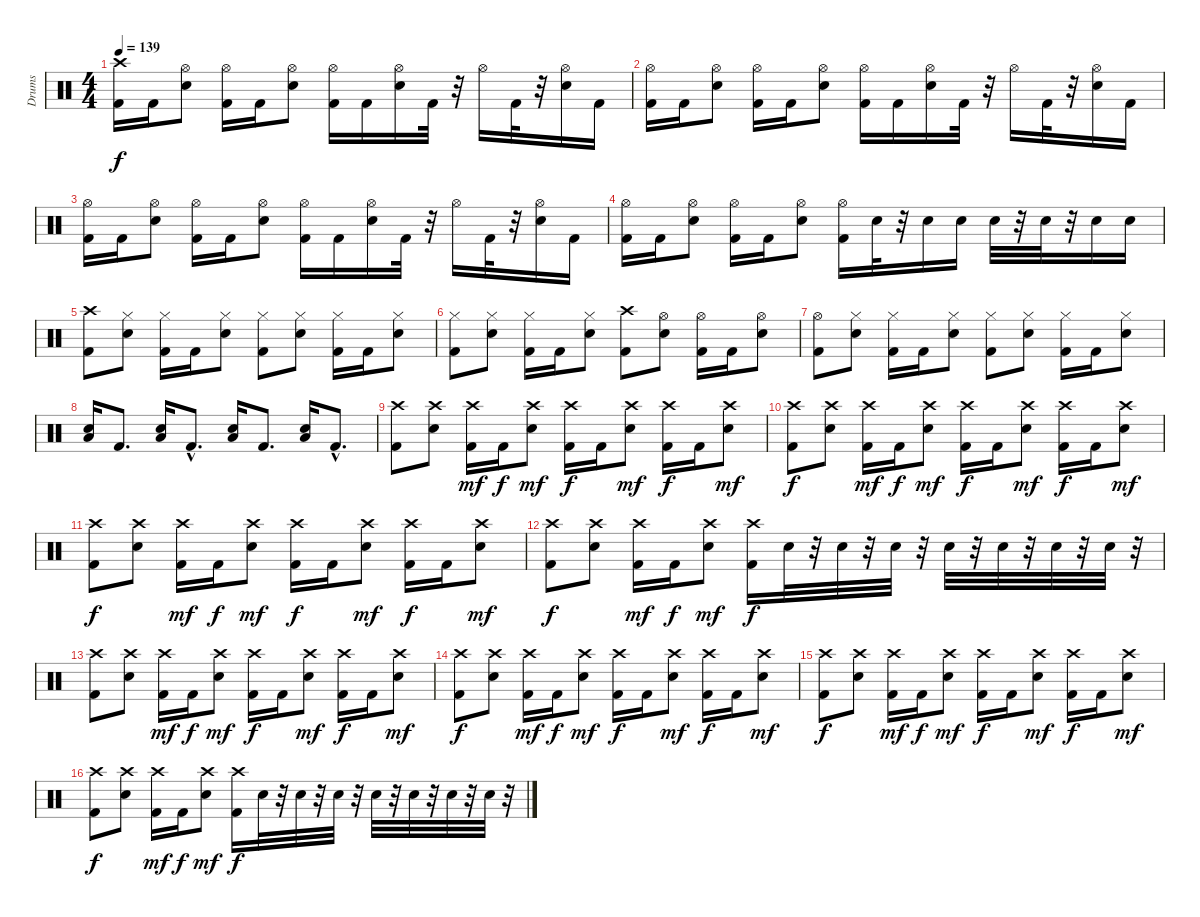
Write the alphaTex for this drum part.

\track ("Drums" "Drums") {instrument percussion}
\staff {score}
\articulation defaults
\ts (4 4)
\tempo 139
\clef neutral
\ks c
("Kick (hit) 2" "Crash high (hit)").16{dy f} "Kick (hit) 2".16 ("Electric Snare (hit)" "Hi-Hat (open)").8 ("Kick (hit) 2" "Hi-Hat (open)").16 "Kick (hit) 2".16 ("Electric Snare (hit)" "Hi-Hat (open)").8 ("Kick (hit) 2" "Hi-Hat (open)").16 "Kick (hit) 2".16 ("Electric Snare (hit)" "Hi-Hat (open)").16 "Kick (hit) 2".32 r.32 "Hi-Hat (open)".16 "Kick (hit) 2".32 r.32 ("Electric Snare (hit)" "Hi-Hat (open)").16 "Kick (hit) 2".16 |
("Kick (hit) 2" "Hi-Hat (open)").16 "Kick (hit) 2".16 ("Electric Snare (hit)" "Hi-Hat (open)").8 ("Kick (hit) 2" "Hi-Hat (open)").16 "Kick (hit) 2".16 ("Electric Snare (hit)" "Hi-Hat (open)").8 ("Kick (hit) 2" "Hi-Hat (open)").16 "Kick (hit) 2".16 ("Electric Snare (hit)" "Hi-Hat (open)").16 "Kick (hit) 2".32 r.32 "Hi-Hat (open)".16 "Kick (hit) 2".32 r.32 ("Electric Snare (hit)" "Hi-Hat (open)").16 "Kick (hit) 2".16 |
("Kick (hit) 2" "Hi-Hat (open)").16 "Kick (hit) 2".16 ("Electric Snare (hit)" "Hi-Hat (open)").8 ("Kick (hit) 2" "Hi-Hat (open)").16 "Kick (hit) 2".16 ("Electric Snare (hit)" "Hi-Hat (open)").8 ("Kick (hit) 2" "Hi-Hat (open)").16 "Kick (hit) 2".16 ("Electric Snare (hit)" "Hi-Hat (open)").16 "Kick (hit) 2".32 r.32 "Hi-Hat (open)".16 "Kick (hit) 2".32 r.32 ("Electric Snare (hit)" "Hi-Hat (open)").16 "Kick (hit) 2".16 |
("Kick (hit) 2" "Hi-Hat (open)").16 "Kick (hit) 2".16 ("Electric Snare (hit)" "Hi-Hat (open)").8 ("Kick (hit) 2" "Hi-Hat (open)").16 "Kick (hit) 2".16 ("Electric Snare (hit)" "Hi-Hat (open)").8 ("Kick (hit) 2" "Hi-Hat (open)").16 "Electric Snare (hit)".32 r.32 "Electric Snare (hit)".16 "Electric Snare (hit)".16 "Electric Snare (hit)".32 r.32 "Electric Snare (hit)".32 r.32 "Electric Snare (hit)".16 "Electric Snare (hit)".16 |
("Kick (hit) 2" "Crash high (hit)").8 ("Hi-Hat (closed)" "Electric Snare (hit)").8 ("Hi-Hat (closed)" "Kick (hit) 2").16 "Kick (hit) 2".16 ("Hi-Hat (closed)" "Electric Snare (hit)").8 ("Kick (hit) 2" "Hi-Hat (closed)").8 ("Hi-Hat (closed)" "Electric Snare (hit)").8 ("Hi-Hat (closed)" "Kick (hit) 2").16 "Kick (hit) 2".16 ("Hi-Hat (closed)" "Electric Snare (hit)").8 |
("Kick (hit) 2" "Hi-Hat (closed)").8 ("Hi-Hat (closed)" "Electric Snare (hit)").8 ("Hi-Hat (closed)" "Kick (hit) 2").16 "Kick (hit) 2".16 ("Hi-Hat (closed)" "Electric Snare (hit)").8 ("Kick (hit) 2" "Crash high (hit)").8 ("Electric Snare (hit)" "Hi-Hat (open)").8 ("Kick (hit) 2" "Hi-Hat (open)").16 "Kick (hit) 2".16 ("Electric Snare (hit)" "Hi-Hat (open)").8 |
("Kick (hit) 2" "Hi-Hat (open)").8 ("Hi-Hat (closed)" "Electric Snare (hit)").8 ("Hi-Hat (closed)" "Kick (hit) 2").16 "Kick (hit) 2".16 ("Hi-Hat (closed)" "Electric Snare (hit)").8 ("Kick (hit) 2" "Hi-Hat (closed)").8 ("Hi-Hat (closed)" "Electric Snare (hit)").8 ("Hi-Hat (closed)" "Kick (hit) 2").16 "Kick (hit) 2".16 ("Hi-Hat (closed)" "Electric Snare (hit)").8 |
("Electric Snare (hit)" "Low Floor Tom (hit)").16 "Kick (hit) 2".8{d} ("Electric Snare (hit)" "Low Floor Tom (hit)").16 "Kick (hit) 2"{hac}.8{d} ("Electric Snare (hit)" "Low Floor Tom (hit)").16 "Kick (hit) 2".8{d} ("Electric Snare (hit)" "Low Floor Tom (hit)").16 "Kick (hit) 2"{hac}.8{d} |
("Crash high (hit)" "Kick (hit) 2").8 ("Electric Snare (hit)" "Crash high (hit)").8 ("Kick (hit) 2" "Crash high (hit)").16{dy mf} "Kick (hit) 2".16{dy f} ("Electric Snare (hit)" "Crash high (hit)").8{dy mf} ("Kick (hit) 2" "Crash high (hit)").16{dy f} "Kick (hit) 2".16 ("Electric Snare (hit)" "Crash high (hit)").8{dy mf} ("Kick (hit) 2" "Crash high (hit)").16{dy f} "Kick (hit) 2".16 ("Electric Snare (hit)" "Crash high (hit)").8{dy mf} |
("Crash high (hit)" "Kick (hit) 2").8{dy f} ("Electric Snare (hit)" "Crash high (hit)").8 ("Kick (hit) 2" "Crash high (hit)").16{dy mf} "Kick (hit) 2".16{dy f} ("Electric Snare (hit)" "Crash high (hit)").8{dy mf} ("Kick (hit) 2" "Crash high (hit)").16{dy f} "Kick (hit) 2".16 ("Electric Snare (hit)" "Crash high (hit)").8{dy mf} ("Kick (hit) 2" "Crash high (hit)").16{dy f} "Kick (hit) 2".16 ("Electric Snare (hit)" "Crash high (hit)").8{dy mf} |
("Crash high (hit)" "Kick (hit) 2").8{dy f} ("Electric Snare (hit)" "Crash high (hit)").8 ("Kick (hit) 2" "Crash high (hit)").16{dy mf} "Kick (hit) 2".16{dy f} ("Electric Snare (hit)" "Crash high (hit)").8{dy mf} ("Kick (hit) 2" "Crash high (hit)").16{dy f} "Kick (hit) 2".16 ("Electric Snare (hit)" "Crash high (hit)").8{dy mf} ("Kick (hit) 2" "Crash high (hit)").16{dy f} "Kick (hit) 2".16 ("Electric Snare (hit)" "Crash high (hit)").8{dy mf} |
("Crash high (hit)" "Kick (hit) 2").8{dy f} ("Electric Snare (hit)" "Crash high (hit)").8 ("Kick (hit) 2" "Crash high (hit)").16{dy mf} "Kick (hit) 2".16{dy f} ("Electric Snare (hit)" "Crash high (hit)").8{dy mf} ("Kick (hit) 2" "Crash high (hit)").16{dy f} "Electric Snare (hit)".32 r.32 "Electric Snare (hit)".32 r.32 "Electric Snare (hit)".32 r.32 "Electric Snare (hit)".32 r.32 "Electric Snare (hit)".32 r.32 "Electric Snare (hit)".32 r.32 "Electric Snare (hit)".32 r.32 |
("Crash high (hit)" "Kick (hit) 2").8 ("Electric Snare (hit)" "Crash high (hit)").8 ("Kick (hit) 2" "Crash high (hit)").16{dy mf} "Kick (hit) 2".16{dy f} ("Electric Snare (hit)" "Crash high (hit)").8{dy mf} ("Kick (hit) 2" "Crash high (hit)").16{dy f} "Kick (hit) 2".16 ("Electric Snare (hit)" "Crash high (hit)").8{dy mf} ("Kick (hit) 2" "Crash high (hit)").16{dy f} "Kick (hit) 2".16 ("Electric Snare (hit)" "Crash high (hit)").8{dy mf} |
("Crash high (hit)" "Kick (hit) 2").8{dy f} ("Electric Snare (hit)" "Crash high (hit)").8 ("Kick (hit) 2" "Crash high (hit)").16{dy mf} "Kick (hit) 2".16{dy f} ("Electric Snare (hit)" "Crash high (hit)").8{dy mf} ("Kick (hit) 2" "Crash high (hit)").16{dy f} "Kick (hit) 2".16 ("Electric Snare (hit)" "Crash high (hit)").8{dy mf} ("Kick (hit) 2" "Crash high (hit)").16{dy f} "Kick (hit) 2".16 ("Electric Snare (hit)" "Crash high (hit)").8{dy mf} |
("Crash high (hit)" "Kick (hit) 2").8{dy f} ("Electric Snare (hit)" "Crash high (hit)").8 ("Kick (hit) 2" "Crash high (hit)").16{dy mf} "Kick (hit) 2".16{dy f} ("Electric Snare (hit)" "Crash high (hit)").8{dy mf} ("Kick (hit) 2" "Crash high (hit)").16{dy f} "Kick (hit) 2".16 ("Electric Snare (hit)" "Crash high (hit)").8{dy mf} ("Kick (hit) 2" "Crash high (hit)").16{dy f} "Kick (hit) 2".16 ("Electric Snare (hit)" "Crash high (hit)").8{dy mf} |
("Crash high (hit)" "Kick (hit) 2").8{dy f} ("Electric Snare (hit)" "Crash high (hit)").8 ("Kick (hit) 2" "Crash high (hit)").16{dy mf} "Kick (hit) 2".16{dy f} ("Electric Snare (hit)" "Crash high (hit)").8{dy mf} ("Kick (hit) 2" "Crash high (hit)").16{dy f} "Electric Snare (hit)".32 r.32 "Electric Snare (hit)".32 r.32 "Electric Snare (hit)".32 r.32 "Electric Snare (hit)".32 r.32 "Electric Snare (hit)".32 r.32 "Electric Snare (hit)".32 r.32 "Electric Snare (hit)".32 r.32
